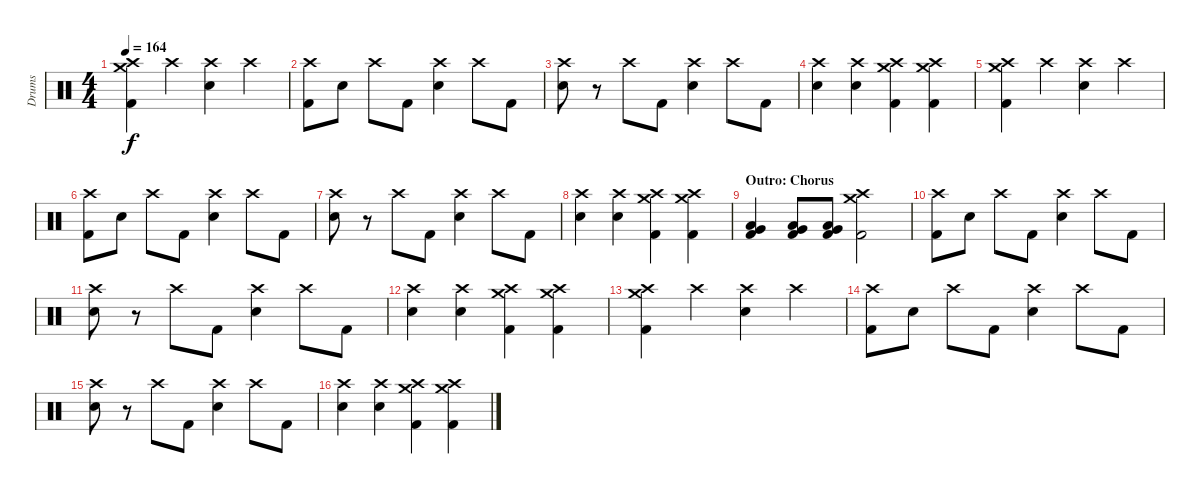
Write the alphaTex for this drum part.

\track ("Drums" "Drums") {instrument percussion}
\staff {score}
\articulation defaults
\ts (4 4)
\tempo 164
\clef neutral
\ks c
("Crash medium (hit)" "Crash high (hit)" "Kick (hit) 2").4{dy f} "Crash high (hit)".4 ("Crash high (hit)" "Electric Snare (hit)").4 "Crash high (hit)".4 |
("Crash high (hit)" "Kick (hit) 2").8 "Electric Snare (hit)".8 "Crash high (hit)".8 "Kick (hit) 2".8 ("Crash high (hit)" "Electric Snare (hit)").4 "Crash high (hit)".8 "Kick (hit) 2".8 |
("Crash high (hit)" "Electric Snare (hit)").8 r.8 "Crash high (hit)".8 "Kick (hit) 2".8 ("Crash high (hit)" "Electric Snare (hit)").4 "Crash high (hit)".8 "Kick (hit) 2".8 |
("Crash high (hit)" "Electric Snare (hit)").4 ("Crash high (hit)" "Electric Snare (hit)").4 ("Crash medium (hit)" "Crash high (hit)" "Kick (hit) 2").4 ("Crash medium (hit)" "Crash high (hit)" "Kick (hit) 2").4 |
("Crash medium (hit)" "Crash high (hit)" "Kick (hit) 2").4 "Crash high (hit)".4 ("Crash high (hit)" "Electric Snare (hit)").4 "Crash high (hit)".4 |
("Crash high (hit)" "Kick (hit) 2").8 "Electric Snare (hit)".8 "Crash high (hit)".8 "Kick (hit) 2".8 ("Crash high (hit)" "Electric Snare (hit)").4 "Crash high (hit)".8 "Kick (hit) 2".8 |
("Crash high (hit)" "Electric Snare (hit)").8 r.8 "Crash high (hit)".8 "Kick (hit) 2".8 ("Crash high (hit)" "Electric Snare (hit)").4 "Crash high (hit)".8 "Kick (hit) 2".8 |
("Crash high (hit)" "Electric Snare (hit)").4 ("Crash high (hit)" "Electric Snare (hit)").4 ("Crash medium (hit)" "Crash high (hit)" "Kick (hit) 2").4 ("Crash medium (hit)" "Crash high (hit)" "Kick (hit) 2").4 |
\section ("" "Outro: Chorus")
("Low Floor Tom (hit)" "Very Low Tom (hit)" "Kick (hit) 2").4 ("Low Floor Tom (hit)" "Very Low Tom (hit)" "Kick (hit) 2").8 ("Low Floor Tom (hit)" "Very Low Tom (hit)" "Kick (hit) 2").8 ("Crash medium (hit)" "Crash high (hit)" "Kick (hit) 2").2 |
("Crash high (hit)" "Kick (hit) 2").8 "Electric Snare (hit)".8 "Crash high (hit)".8 "Kick (hit) 2".8 ("Crash high (hit)" "Electric Snare (hit)").4 "Crash high (hit)".8 "Kick (hit) 2".8 |
("Crash high (hit)" "Electric Snare (hit)").8 r.8 "Crash high (hit)".8 "Kick (hit) 2".8 ("Crash high (hit)" "Electric Snare (hit)").4 "Crash high (hit)".8 "Kick (hit) 2".8 |
("Crash high (hit)" "Electric Snare (hit)").4 ("Crash high (hit)" "Electric Snare (hit)").4 ("Crash medium (hit)" "Crash high (hit)" "Kick (hit) 2").4 ("Crash medium (hit)" "Crash high (hit)" "Kick (hit) 2").4 |
("Crash medium (hit)" "Crash high (hit)" "Kick (hit) 2").4 "Crash high (hit)".4 ("Crash high (hit)" "Electric Snare (hit)").4 "Crash high (hit)".4 |
("Crash high (hit)" "Kick (hit) 2").8 "Electric Snare (hit)".8 "Crash high (hit)".8 "Kick (hit) 2".8 ("Crash high (hit)" "Electric Snare (hit)").4 "Crash high (hit)".8 "Kick (hit) 2".8 |
("Crash high (hit)" "Electric Snare (hit)").8 r.8 "Crash high (hit)".8 "Kick (hit) 2".8 ("Crash high (hit)" "Electric Snare (hit)").4 "Crash high (hit)".8 "Kick (hit) 2".8 |
("Crash high (hit)" "Electric Snare (hit)").4 ("Crash high (hit)" "Electric Snare (hit)").4 ("Crash medium (hit)" "Crash high (hit)" "Kick (hit) 2").4 ("Crash medium (hit)" "Crash high (hit)" "Kick (hit) 2").4
